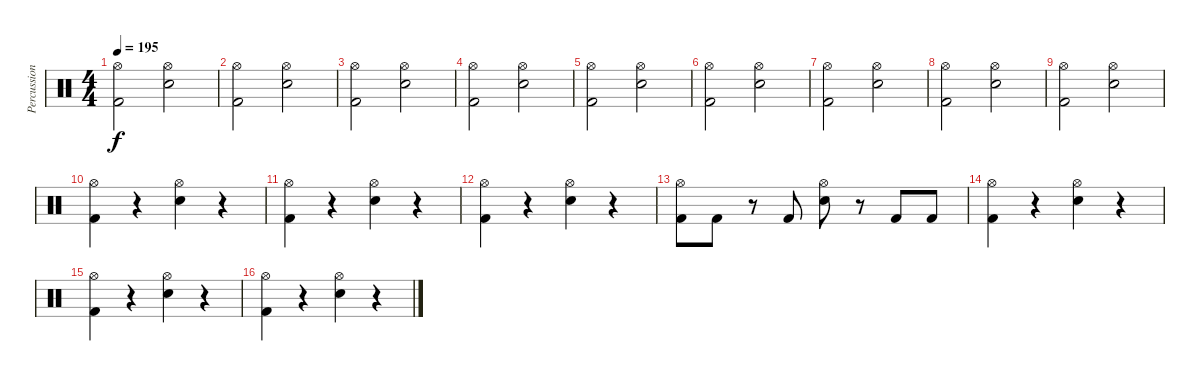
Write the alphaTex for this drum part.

\track ("Percussion" "Percussion") {instrument percussion}
\staff {score}
\articulation defaults
\ts (4 4)
\tempo 195
\clef neutral
\ks c
("Hi-Hat (open)" "Kick (hit) 2").2{dy f} ("Hi-Hat (open)" "Snare (hit) 2").2 |
("Hi-Hat (open)" "Kick (hit) 2").2 ("Hi-Hat (open)" "Snare (hit) 2").2 |
("Hi-Hat (open)" "Kick (hit) 2").2 ("Hi-Hat (open)" "Snare (hit) 2").2 |
("Hi-Hat (open)" "Kick (hit) 2").2 ("Hi-Hat (open)" "Snare (hit) 2").2 |
("Hi-Hat (open)" "Kick (hit) 2").2 ("Hi-Hat (open)" "Snare (hit) 2").2 |
("Hi-Hat (open)" "Kick (hit) 2").2 ("Hi-Hat (open)" "Snare (hit) 2").2 |
("Hi-Hat (open)" "Kick (hit) 2").2 ("Hi-Hat (open)" "Snare (hit) 2").2 |
("Hi-Hat (open)" "Kick (hit) 2").2 ("Hi-Hat (open)" "Snare (hit) 2").2 |
("Hi-Hat (open)" "Kick (hit) 2").2 ("Hi-Hat (open)" "Snare (hit) 2").2 |
("Hi-Hat (open)" "Kick (hit) 2").4 r.4 ("Hi-Hat (open)" "Snare (hit) 2").4 r.4 |
("Hi-Hat (open)" "Kick (hit) 2").4 r.4 ("Hi-Hat (open)" "Snare (hit) 2").4 r.4 |
("Hi-Hat (open)" "Kick (hit) 2").4 r.4 ("Hi-Hat (open)" "Snare (hit) 2").4 r.4 |
("Hi-Hat (open)" "Kick (hit) 2").8 "Kick (hit) 2".8 r.8 "Kick (hit) 2".8 ("Hi-Hat (open)" "Snare (hit) 2").8 r.8 "Kick (hit) 2".8 "Kick (hit) 2".8 |
("Hi-Hat (open)" "Kick (hit) 2").4 r.4 ("Hi-Hat (open)" "Snare (hit) 2").4 r.4 |
("Hi-Hat (open)" "Kick (hit) 2").4 r.4 ("Hi-Hat (open)" "Snare (hit) 2").4 r.4 |
("Hi-Hat (open)" "Kick (hit) 2").4 r.4 ("Hi-Hat (open)" "Snare (hit) 2").4 r.4
